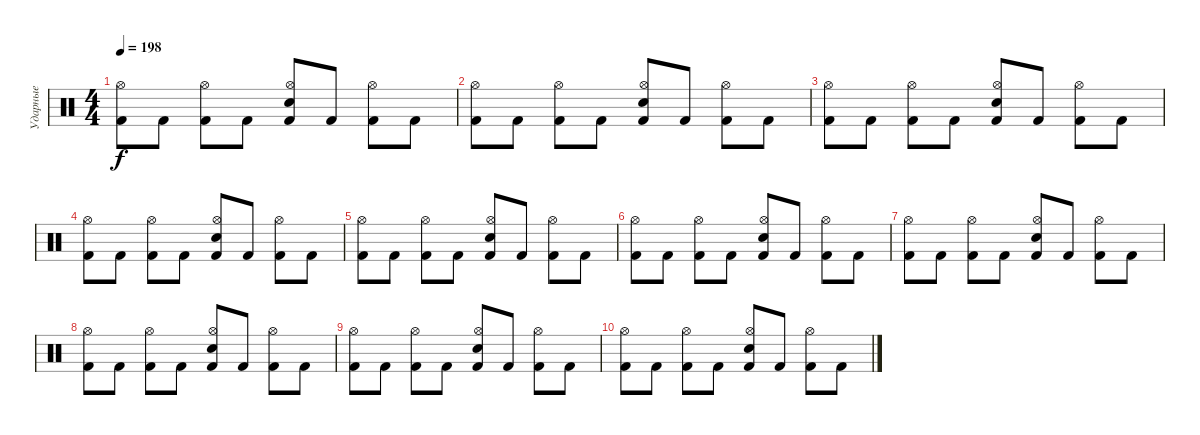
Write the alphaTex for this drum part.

\track ("Ударные" "Ударные") {instrument percussion}
\staff {score}
\articulation defaults
\ts (4 4)
\tempo 198
\clef neutral
\ks c
("Kick (hit) 2" "Hi-Hat (open)").8{dy f volume 13} "Kick (hit) 2".8 ("Kick (hit) 2" "Hi-Hat (open)").8 "Kick (hit) 2".8 ("Kick (hit) 2" "Hi-Hat (open)" "Electric Snare (hit)").8 "Kick (hit) 2".8 ("Kick (hit) 2" "Hi-Hat (open)").8 "Kick (hit) 2".8 |
("Kick (hit) 2" "Hi-Hat (open)").8{volume 12} "Kick (hit) 2".8 ("Kick (hit) 2" "Hi-Hat (open)").8 "Kick (hit) 2".8 ("Kick (hit) 2" "Hi-Hat (open)" "Electric Snare (hit)").8 "Kick (hit) 2".8 ("Kick (hit) 2" "Hi-Hat (open)").8 "Kick (hit) 2".8 |
("Kick (hit) 2" "Hi-Hat (open)").8{volume 11} "Kick (hit) 2".8 ("Kick (hit) 2" "Hi-Hat (open)").8 "Kick (hit) 2".8 ("Kick (hit) 2" "Hi-Hat (open)" "Electric Snare (hit)").8 "Kick (hit) 2".8 ("Kick (hit) 2" "Hi-Hat (open)").8 "Kick (hit) 2".8 |
("Kick (hit) 2" "Hi-Hat (open)").8{volume 10} "Kick (hit) 2".8 ("Kick (hit) 2" "Hi-Hat (open)").8 "Kick (hit) 2".8 ("Kick (hit) 2" "Hi-Hat (open)" "Electric Snare (hit)").8 "Kick (hit) 2".8 ("Kick (hit) 2" "Hi-Hat (open)").8 "Kick (hit) 2".8 |
("Kick (hit) 2" "Hi-Hat (open)").8{volume 8} "Kick (hit) 2".8 ("Kick (hit) 2" "Hi-Hat (open)").8 "Kick (hit) 2".8 ("Kick (hit) 2" "Hi-Hat (open)" "Electric Snare (hit)").8 "Kick (hit) 2".8 ("Kick (hit) 2" "Hi-Hat (open)").8 "Kick (hit) 2".8 |
("Kick (hit) 2" "Hi-Hat (open)").8{volume 7} "Kick (hit) 2".8 ("Kick (hit) 2" "Hi-Hat (open)").8 "Kick (hit) 2".8 ("Kick (hit) 2" "Hi-Hat (open)" "Electric Snare (hit)").8 "Kick (hit) 2".8 ("Kick (hit) 2" "Hi-Hat (open)").8 "Kick (hit) 2".8 |
("Kick (hit) 2" "Hi-Hat (open)").8{volume 6} "Kick (hit) 2".8 ("Kick (hit) 2" "Hi-Hat (open)").8 "Kick (hit) 2".8 ("Kick (hit) 2" "Hi-Hat (open)" "Electric Snare (hit)").8 "Kick (hit) 2".8 ("Kick (hit) 2" "Hi-Hat (open)").8 "Kick (hit) 2".8 |
("Kick (hit) 2" "Hi-Hat (open)").8{volume 5} "Kick (hit) 2".8 ("Kick (hit) 2" "Hi-Hat (open)").8 "Kick (hit) 2".8 ("Kick (hit) 2" "Hi-Hat (open)" "Electric Snare (hit)").8 "Kick (hit) 2".8 ("Kick (hit) 2" "Hi-Hat (open)").8 "Kick (hit) 2".8 |
("Kick (hit) 2" "Hi-Hat (open)").8{volume 3} "Kick (hit) 2".8 ("Kick (hit) 2" "Hi-Hat (open)").8 "Kick (hit) 2".8 ("Kick (hit) 2" "Hi-Hat (open)" "Electric Snare (hit)").8 "Kick (hit) 2".8 ("Kick (hit) 2" "Hi-Hat (open)").8 "Kick (hit) 2".8 |
("Kick (hit) 2" "Hi-Hat (open)").8{volume 1} "Kick (hit) 2".8 ("Kick (hit) 2" "Hi-Hat (open)").8 "Kick (hit) 2".8 ("Kick (hit) 2" "Hi-Hat (open)" "Electric Snare (hit)").8 "Kick (hit) 2".8 ("Kick (hit) 2" "Hi-Hat (open)").8 "Kick (hit) 2".8
